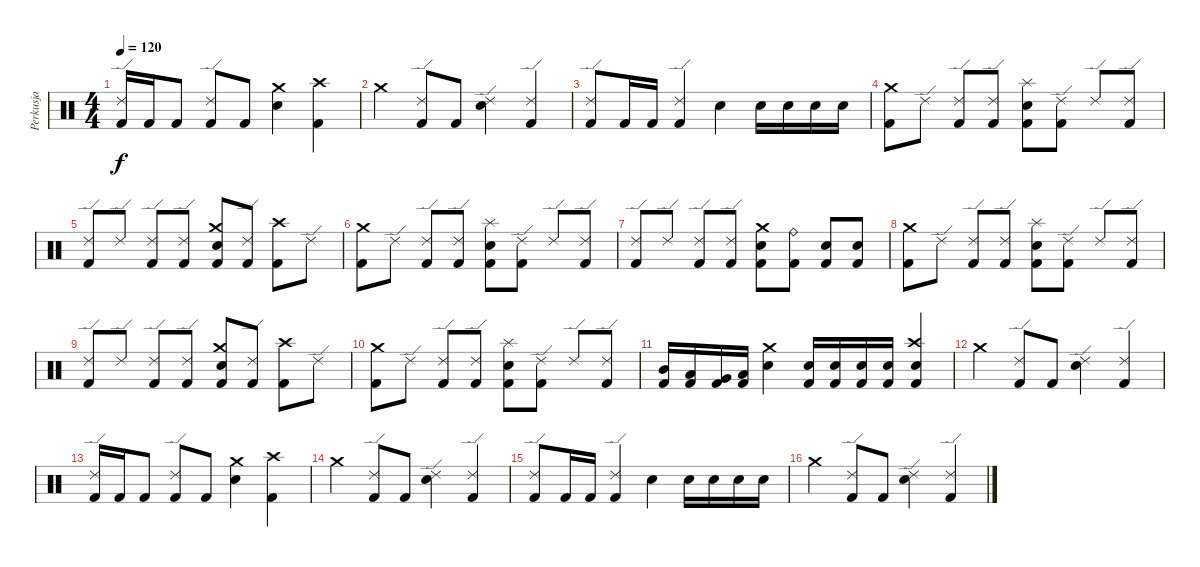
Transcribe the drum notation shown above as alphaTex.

\track ("Perkusja" "Perkusja") {instrument percussion}
\staff {score}
\articulation defaults
\ts (4 4)
\tempo 120
\clef neutral
\ks c
("Ride (edge) 2" "Kick (hit) 2").16{dy f} "Kick (hit) 2".16 "Kick (hit) 2".8 ("Ride (edge) 2" "Kick (hit) 2").8 "Kick (hit) 2".8 ("Crash medium (hit)" "Electric Snare (hit)").4 ("Crash high (hit)" "Kick (hit) 2").4 |
"Crash medium (hit)".4 ("Ride (edge) 2" "Kick (hit) 2").8 "Kick (hit) 2".8 ("Ride (edge) 2" "Electric Snare (hit)").4 ("Ride (edge) 2" "Kick (hit) 2").4 |
("Ride (edge) 2" "Kick (hit) 2").8 "Kick (hit) 2".16 "Kick (hit) 2".16 ("Ride (edge) 2" "Kick (hit) 2").4 "Electric Snare (hit)".4 "Electric Snare (hit)".16 "Electric Snare (hit)".16 "Electric Snare (hit)".16 "Electric Snare (hit)".16 |
("Crash medium (hit)" "Kick (hit) 2").8{volume 16} "Ride (edge) 2".8 ("Ride (edge) 2" "Kick (hit) 2").8 ("Ride (edge) 2" "Kick (hit) 2").8 ("Splash (hit)" "Kick (hit) 2" "Electric Snare (hit)").8 ("Ride (edge) 2" "Kick (hit) 2").8 "Ride (edge) 2".8 ("Ride (edge) 2" "Kick (hit) 2").8 |
("Ride (edge) 2" "Kick (hit) 2").8 "Ride (edge) 2".8 ("Ride (edge) 2" "Kick (hit) 2").8 ("Ride (edge) 2" "Kick (hit) 2").8 ("Crash medium (hit)" "Kick (hit) 2" "Electric Snare (hit)").8 ("Ride (edge) 2" "Kick (hit) 2").8 ("Crash high (hit)" "Kick (hit) 2").8 "Ride (edge) 2".8 |
("Crash medium (hit)" "Kick (hit) 2").8 "Ride (edge) 2".8 ("Ride (edge) 2" "Kick (hit) 2").8 ("Ride (edge) 2" "Kick (hit) 2").8 ("Splash (hit)" "Kick (hit) 2" "Electric Snare (hit)").8 ("Ride (edge) 2" "Kick (hit) 2").8 "Ride (edge) 2".8 ("Ride (edge) 2" "Kick (hit) 2").8 |
("Ride (edge) 2" "Kick (hit) 2").8 "Ride (edge) 2".8 ("Ride (edge) 2" "Kick (hit) 2").8 ("Ride (edge) 2" "Kick (hit) 2").8 ("Crash medium (hit)" "Kick (hit) 2" "Electric Snare (hit)").8 ("Ride (bell)" "Kick (hit) 2").8 ("Electric Snare (hit)" "Kick (hit) 2").8 ("Electric Snare (hit)" "Kick (hit) 2").8 |
("Crash medium (hit)" "Kick (hit) 2").8{volume 16} "Ride (edge) 2".8 ("Ride (edge) 2" "Kick (hit) 2").8 ("Ride (edge) 2" "Kick (hit) 2").8 ("Splash (hit)" "Kick (hit) 2" "Electric Snare (hit)").8 ("Ride (edge) 2" "Kick (hit) 2").8 "Ride (edge) 2".8 ("Ride (edge) 2" "Kick (hit) 2").8 |
("Ride (edge) 2" "Kick (hit) 2").8 "Ride (edge) 2".8 ("Ride (edge) 2" "Kick (hit) 2").8 ("Ride (edge) 2" "Kick (hit) 2").8 ("Crash medium (hit)" "Kick (hit) 2" "Electric Snare (hit)").8 ("Ride (edge) 2" "Kick (hit) 2").8 ("Crash high (hit)" "Kick (hit) 2").8 "Ride (edge) 2".8 |
("Crash medium (hit)" "Kick (hit) 2").8 "Ride (edge) 2".8 ("Ride (edge) 2" "Kick (hit) 2").8 ("Ride (edge) 2" "Kick (hit) 2").8 ("Splash (hit)" "Kick (hit) 2" "Electric Snare (hit)").8 ("Ride (edge) 2" "Kick (hit) 2").8 "Ride (edge) 2".8 ("Ride (edge) 2" "Kick (hit) 2").8 |
("Mid Tom (hit)" "Kick (hit) 2").16 ("Low Tom (hit)" "Kick (hit) 2").16 ("Very Low Tom (hit)" "Kick (hit) 2").16 ("Low Floor Tom (hit)" "Kick (hit) 2").16 ("Crash medium (hit)" "Electric Snare (hit)").4 ("Electric Snare (hit)" "Kick (hit) 2").16 ("Electric Snare (hit)" "Kick (hit) 2").16 ("Electric Snare (hit)" "Kick (hit) 2").16 ("Electric Snare (hit)" "Kick (hit) 2").16 ("Crash high (hit)" "Snare (hit) 2" "Kick (hit) 2").4 |
"Crash medium (hit)".4 ("Ride (edge) 2" "Kick (hit) 2").8 "Kick (hit) 2".8 ("Ride (edge) 2" "Electric Snare (hit)").4 ("Ride (edge) 2" "Kick (hit) 2").4 |
("Ride (edge) 2" "Kick (hit) 2").16 "Kick (hit) 2".16 "Kick (hit) 2".8 ("Ride (edge) 2" "Kick (hit) 2").8 "Kick (hit) 2".8 ("Crash medium (hit)" "Electric Snare (hit)").4 ("Crash high (hit)" "Kick (hit) 2").4 |
"Crash medium (hit)".4 ("Ride (edge) 2" "Kick (hit) 2").8 "Kick (hit) 2".8 ("Ride (edge) 2" "Electric Snare (hit)").4 ("Ride (edge) 2" "Kick (hit) 2").4 |
("Ride (edge) 2" "Kick (hit) 2").8 "Kick (hit) 2".16 "Kick (hit) 2".16 ("Ride (edge) 2" "Kick (hit) 2").4 "Electric Snare (hit)".4 "Electric Snare (hit)".16 "Electric Snare (hit)".16 "Electric Snare (hit)".16 "Electric Snare (hit)".16 |
"Crash medium (hit)".4 ("Ride (edge) 2" "Kick (hit) 2").8 "Kick (hit) 2".8 ("Ride (edge) 2" "Electric Snare (hit)").4 ("Ride (edge) 2" "Kick (hit) 2").4
